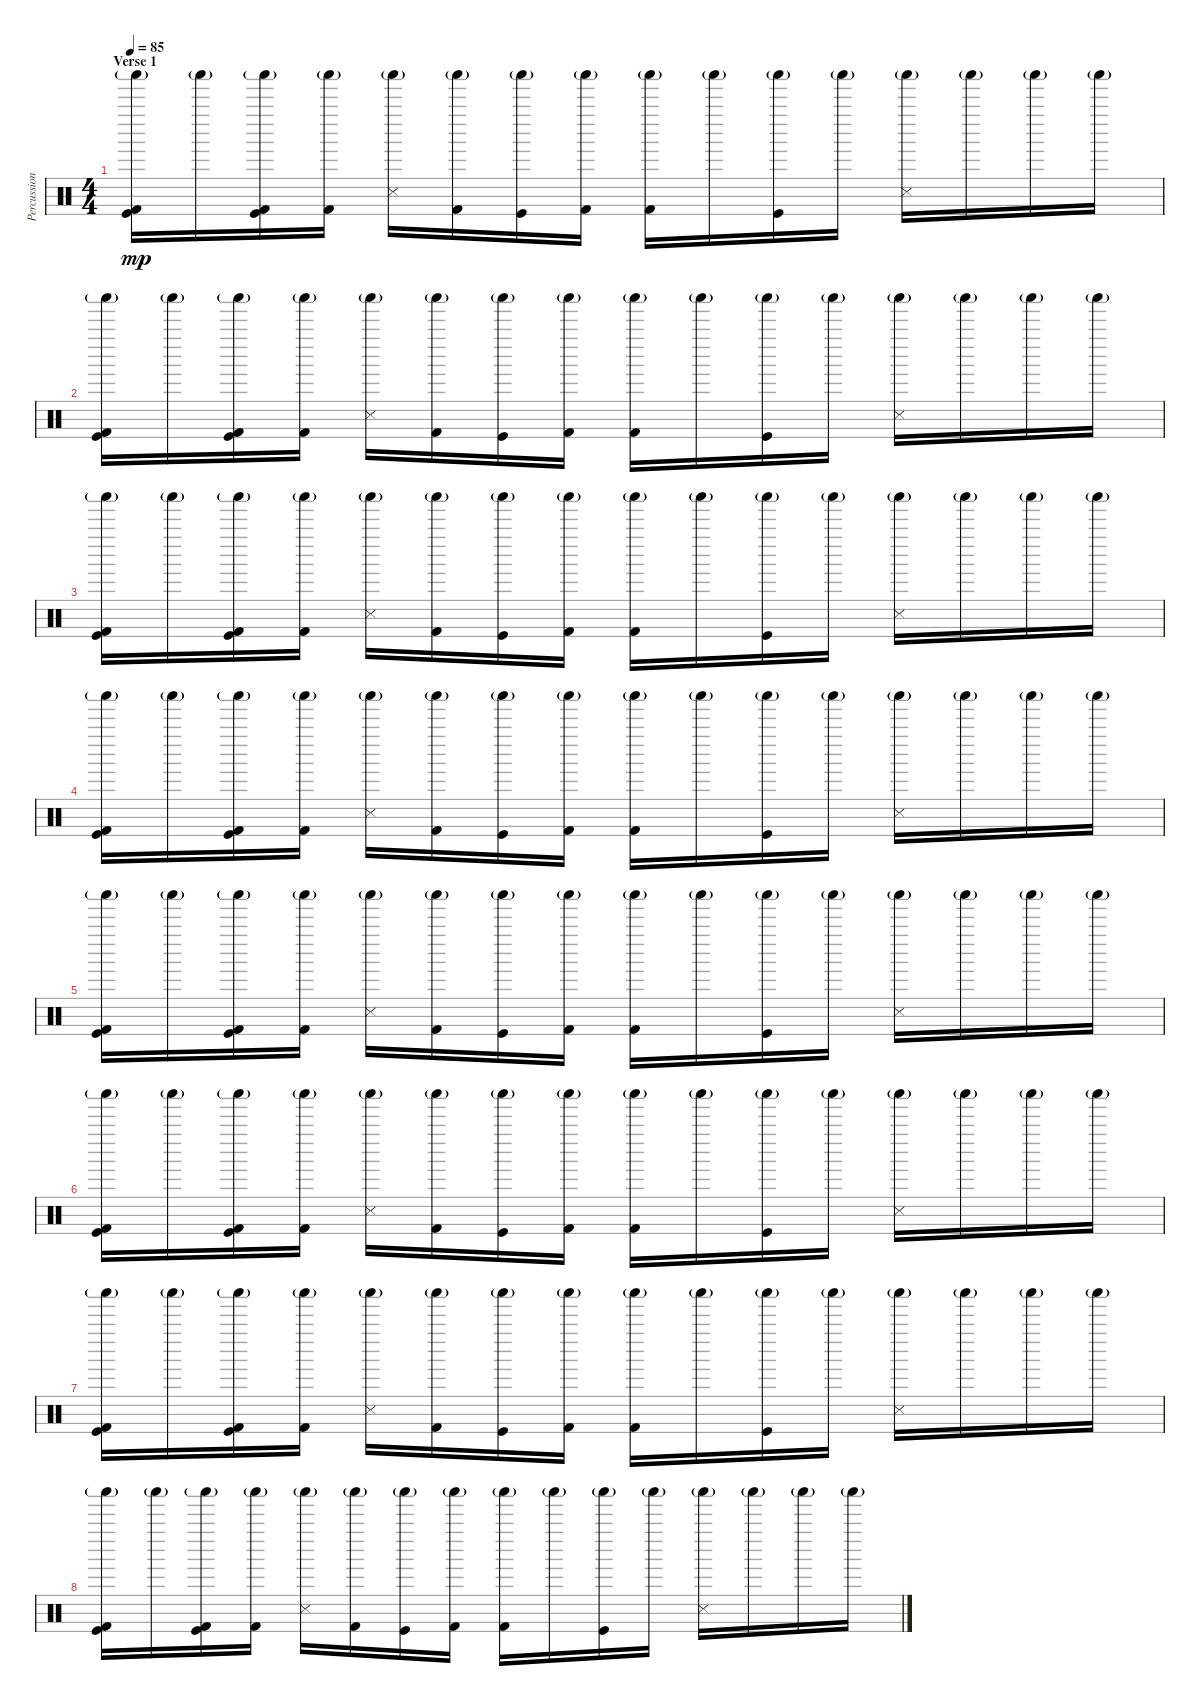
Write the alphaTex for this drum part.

\track ("Percussions" "Percussion") {instrument percussion}
\staff {score}
\articulation defaults
\ts (4 4)
\section ("" "Verse 1")
\tempo 85
\clef neutral
\ks c
("Shaker (hit)"{g} "Kick (hit) 2" "Kick (hit)").16{dy mp} "Shaker (hit)"{g}.16 ("Shaker (hit)"{g} "Kick (hit) 2" "Kick (hit)").16 ("Shaker (hit)"{g} "Kick (hit) 2").16 ("Shaker (hit)"{g} "Snare (side stick) 3").16 ("Shaker (hit)"{g} "Kick (hit) 2").16 ("Shaker (hit)"{g} "Kick (hit)").16 ("Shaker (hit)"{g} "Kick (hit) 2").16 ("Shaker (hit)"{g} "Kick (hit) 2").16 "Shaker (hit)"{g}.16 ("Shaker (hit)"{g} "Kick (hit)").16 "Shaker (hit)"{g}.16 ("Shaker (hit)"{g} "Snare (side stick) 3").16 "Shaker (hit)"{g}.16 "Shaker (hit)"{g}.16 "Shaker (hit)"{g}.16 |
("Shaker (hit)"{g} "Kick (hit) 2" "Kick (hit)").16 "Shaker (hit)"{g}.16 ("Shaker (hit)"{g} "Kick (hit) 2" "Kick (hit)").16 ("Shaker (hit)"{g} "Kick (hit) 2").16 ("Shaker (hit)"{g} "Snare (side stick) 3").16 ("Shaker (hit)"{g} "Kick (hit) 2").16 ("Shaker (hit)"{g} "Kick (hit)").16 ("Shaker (hit)"{g} "Kick (hit) 2").16 ("Shaker (hit)"{g} "Kick (hit) 2").16 "Shaker (hit)"{g}.16 ("Shaker (hit)"{g} "Kick (hit)").16 "Shaker (hit)"{g}.16 ("Shaker (hit)"{g} "Snare (side stick) 3").16 "Shaker (hit)"{g}.16 "Shaker (hit)"{g}.16 "Shaker (hit)"{g}.16 |
("Shaker (hit)"{g} "Kick (hit) 2" "Kick (hit)").16 "Shaker (hit)"{g}.16 ("Shaker (hit)"{g} "Kick (hit) 2" "Kick (hit)").16 ("Shaker (hit)"{g} "Kick (hit) 2").16 ("Shaker (hit)"{g} "Snare (side stick) 3").16 ("Shaker (hit)"{g} "Kick (hit) 2").16 ("Shaker (hit)"{g} "Kick (hit)").16 ("Shaker (hit)"{g} "Kick (hit) 2").16 ("Shaker (hit)"{g} "Kick (hit) 2").16 "Shaker (hit)"{g}.16 ("Shaker (hit)"{g} "Kick (hit)").16 "Shaker (hit)"{g}.16 ("Shaker (hit)"{g} "Snare (side stick) 3").16 "Shaker (hit)"{g}.16 "Shaker (hit)"{g}.16 "Shaker (hit)"{g}.16 |
("Shaker (hit)"{g} "Kick (hit) 2" "Kick (hit)").16 "Shaker (hit)"{g}.16 ("Shaker (hit)"{g} "Kick (hit) 2" "Kick (hit)").16 ("Shaker (hit)"{g} "Kick (hit) 2").16 ("Shaker (hit)"{g} "Snare (side stick) 3").16 ("Shaker (hit)"{g} "Kick (hit) 2").16 ("Shaker (hit)"{g} "Kick (hit)").16 ("Shaker (hit)"{g} "Kick (hit) 2").16 ("Shaker (hit)"{g} "Kick (hit) 2").16 "Shaker (hit)"{g}.16 ("Shaker (hit)"{g} "Kick (hit)").16 "Shaker (hit)"{g}.16 ("Shaker (hit)"{g} "Snare (side stick) 3").16 "Shaker (hit)"{g}.16 "Shaker (hit)"{g}.16 "Shaker (hit)"{g}.16 |
("Shaker (hit)"{g} "Kick (hit) 2" "Kick (hit)").16 "Shaker (hit)"{g}.16 ("Shaker (hit)"{g} "Kick (hit) 2" "Kick (hit)").16 ("Shaker (hit)"{g} "Kick (hit) 2").16 ("Shaker (hit)"{g} "Snare (side stick) 3").16 ("Shaker (hit)"{g} "Kick (hit) 2").16 ("Shaker (hit)"{g} "Kick (hit)").16 ("Shaker (hit)"{g} "Kick (hit) 2").16 ("Shaker (hit)"{g} "Kick (hit) 2").16 "Shaker (hit)"{g}.16 ("Shaker (hit)"{g} "Kick (hit)").16 "Shaker (hit)"{g}.16 ("Shaker (hit)"{g} "Snare (side stick) 3").16 "Shaker (hit)"{g}.16 "Shaker (hit)"{g}.16 "Shaker (hit)"{g}.16 |
("Shaker (hit)"{g} "Kick (hit) 2" "Kick (hit)").16 "Shaker (hit)"{g}.16 ("Shaker (hit)"{g} "Kick (hit) 2" "Kick (hit)").16 ("Shaker (hit)"{g} "Kick (hit) 2").16 ("Shaker (hit)"{g} "Snare (side stick) 3").16 ("Shaker (hit)"{g} "Kick (hit) 2").16 ("Shaker (hit)"{g} "Kick (hit)").16 ("Shaker (hit)"{g} "Kick (hit) 2").16 ("Shaker (hit)"{g} "Kick (hit) 2").16 "Shaker (hit)"{g}.16 ("Shaker (hit)"{g} "Kick (hit)").16 "Shaker (hit)"{g}.16 ("Shaker (hit)"{g} "Snare (side stick) 3").16 "Shaker (hit)"{g}.16 "Shaker (hit)"{g}.16 "Shaker (hit)"{g}.16 |
("Shaker (hit)"{g} "Kick (hit) 2" "Kick (hit)").16 "Shaker (hit)"{g}.16 ("Shaker (hit)"{g} "Kick (hit) 2" "Kick (hit)").16 ("Shaker (hit)"{g} "Kick (hit) 2").16 ("Shaker (hit)"{g} "Snare (side stick) 3").16 ("Shaker (hit)"{g} "Kick (hit) 2").16 ("Shaker (hit)"{g} "Kick (hit)").16 ("Shaker (hit)"{g} "Kick (hit) 2").16 ("Shaker (hit)"{g} "Kick (hit) 2").16 "Shaker (hit)"{g}.16 ("Shaker (hit)"{g} "Kick (hit)").16 "Shaker (hit)"{g}.16 ("Shaker (hit)"{g} "Snare (side stick) 3").16 "Shaker (hit)"{g}.16 "Shaker (hit)"{g}.16 "Shaker (hit)"{g}.16 |
("Shaker (hit)"{g} "Kick (hit) 2" "Kick (hit)").16 "Shaker (hit)"{g}.16 ("Shaker (hit)"{g} "Kick (hit) 2" "Kick (hit)").16 ("Shaker (hit)"{g} "Kick (hit) 2").16 ("Shaker (hit)"{g} "Snare (side stick) 3").16 ("Shaker (hit)"{g} "Kick (hit) 2").16 ("Shaker (hit)"{g} "Kick (hit)").16 ("Shaker (hit)"{g} "Kick (hit) 2").16 ("Shaker (hit)"{g} "Kick (hit) 2").16 "Shaker (hit)"{g}.16 ("Shaker (hit)"{g} "Kick (hit)").16 "Shaker (hit)"{g}.16 ("Shaker (hit)"{g} "Snare (side stick) 3").16 "Shaker (hit)"{g}.16 "Shaker (hit)"{g}.16 "Shaker (hit)"{g}.16
